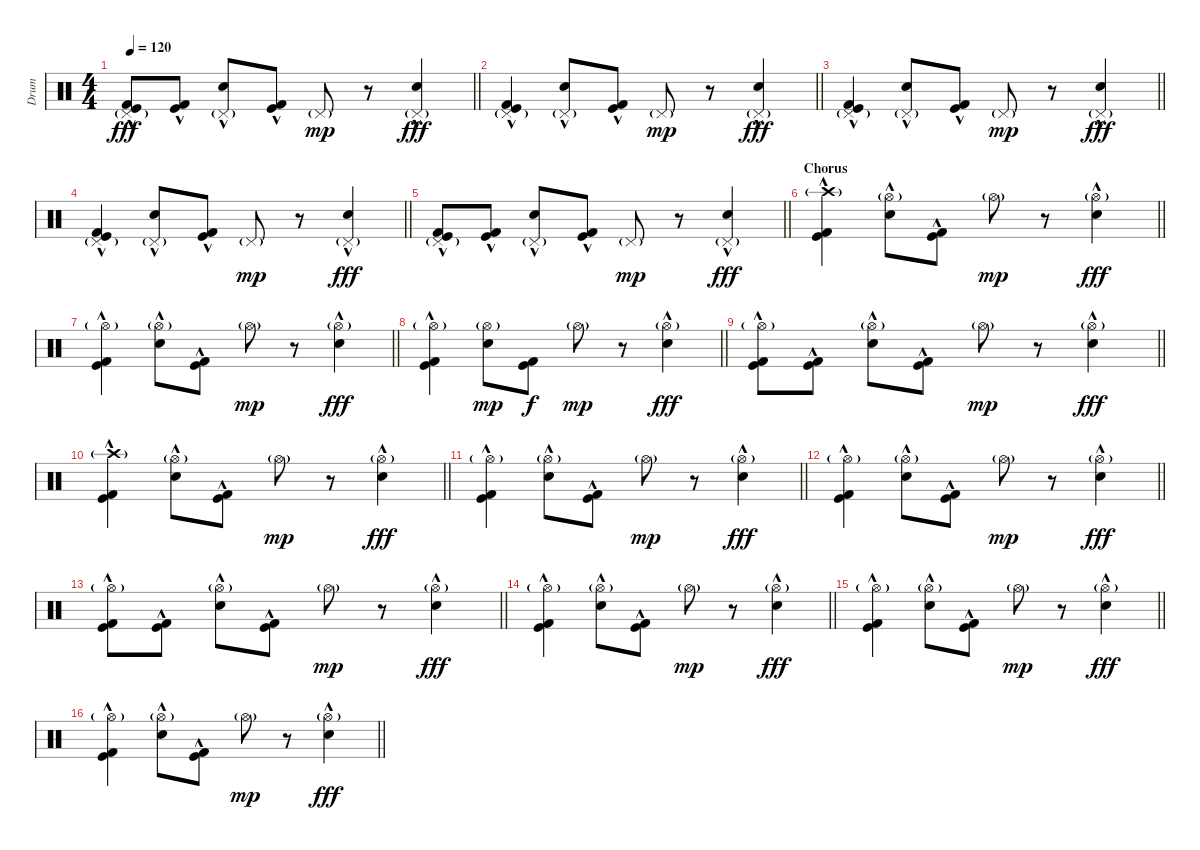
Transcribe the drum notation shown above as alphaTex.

\track ("Drum" "Drum") {instrument percussion}
\staff {score}
\articulation defaults
\ts (4 4)
\tempo 120
\clef neutral
\barLineRight lightlight
\ks c
("Pedal Hi-Hat (hit)"{g} "Kick (hit) 2"{hac} "Kick (hit)"{hac}).8{dy fff} ("Kick (hit) 2"{hac} "Kick (hit)"{hac}).8 ("Pedal Hi-Hat (hit)"{g} "Snare (hit) 2"{hac}).8 ("Kick (hit) 2"{hac} "Kick (hit)"{hac}).8 "Pedal Hi-Hat (hit)"{g}.8{dy mp} r.8 ("Pedal Hi-Hat (hit)"{g} "Snare (hit) 2"{hac}).4{dy fff} |
\barLineRight lightlight
("Pedal Hi-Hat (hit)"{g} "Kick (hit) 2"{hac} "Kick (hit)"{hac}).4 ("Pedal Hi-Hat (hit)"{g} "Snare (hit) 2"{hac}).8 ("Kick (hit) 2"{hac} "Kick (hit)"{hac}).8 "Pedal Hi-Hat (hit)"{g}.8{dy mp} r.8 ("Pedal Hi-Hat (hit)"{g} "Snare (hit) 2"{hac}).4{dy fff} |
\barLineRight lightlight
("Pedal Hi-Hat (hit)"{g} "Kick (hit) 2"{hac} "Kick (hit)"{hac}).4 ("Pedal Hi-Hat (hit)"{g} "Snare (hit) 2"{hac}).8 ("Kick (hit) 2"{hac} "Kick (hit)"{hac}).8 "Pedal Hi-Hat (hit)"{g}.8{dy mp} r.8 ("Pedal Hi-Hat (hit)"{g} "Snare (hit) 2"{hac}).4{dy fff} |
\barLineRight lightlight
("Pedal Hi-Hat (hit)"{g} "Kick (hit) 2"{hac} "Kick (hit)"{hac}).4 ("Pedal Hi-Hat (hit)"{g} "Snare (hit) 2"{hac}).8 ("Kick (hit) 2"{hac} "Kick (hit)"{hac}).8 "Pedal Hi-Hat (hit)"{g}.8{dy mp} r.8 ("Pedal Hi-Hat (hit)"{g} "Snare (hit) 2"{hac}).4{dy fff} |
\barLineRight lightlight
("Pedal Hi-Hat (hit)"{g} "Kick (hit) 2"{hac} "Kick (hit)"{hac}).8 ("Kick (hit) 2"{hac} "Kick (hit)"{hac}).8 ("Pedal Hi-Hat (hit)"{g} "Snare (hit) 2"{hac}).8 ("Kick (hit) 2"{hac} "Kick (hit)"{hac}).8 "Pedal Hi-Hat (hit)"{g}.8{dy mp} r.8 ("Pedal Hi-Hat (hit)"{g} "Snare (hit) 2"{hac}).4{dy fff} |
\section ("" "Chorus")
\barLineRight lightlight
("Crash high (hit)"{g} "Kick (hit) 2"{hac} "Kick (hit)"{hac}).4 ("Hi-Hat (open)"{g} "Snare (hit) 2"{hac}).8 ("Kick (hit) 2"{hac} "Kick (hit)"{hac}).8 "Hi-Hat (open)"{g}.8{dy mp} r.8 ("Hi-Hat (open)"{g} "Snare (hit) 2"{hac}).4{dy fff} |
\barLineRight lightlight
("Hi-Hat (open)"{g} "Kick (hit) 2"{hac} "Kick (hit)"{hac}).4 ("Hi-Hat (open)"{g} "Snare (hit) 2"{hac}).8 ("Kick (hit) 2"{hac} "Kick (hit)"{hac}).8 "Hi-Hat (open)"{g}.8{dy mp} r.8 ("Hi-Hat (open)"{g} "Snare (hit) 2"{hac}).4{dy fff} |
\barLineRight lightlight
("Hi-Hat (open)"{g} "Kick (hit) 2"{hac} "Kick (hit)"{hac}).4 ("Hi-Hat (open)"{g} "Snare (hit) 2").8{dy mp} ("Kick (hit) 2" "Kick (hit)").8{dy f} "Hi-Hat (open)"{g}.8{dy mp} r.8 ("Hi-Hat (open)"{g} "Snare (hit) 2"{hac}).4{dy fff} |
\barLineRight lightlight
("Hi-Hat (open)"{g} "Kick (hit) 2"{hac} "Kick (hit)"{hac}).8 ("Kick (hit) 2"{hac} "Kick (hit)"{hac}).8 ("Hi-Hat (open)"{g} "Snare (hit) 2"{hac}).8 ("Kick (hit) 2"{hac} "Kick (hit)"{hac}).8 "Hi-Hat (open)"{g}.8{dy mp} r.8 ("Hi-Hat (open)"{g} "Snare (hit) 2"{hac}).4{dy fff} |
\barLineRight lightlight
("Crash high (hit)"{g} "Kick (hit) 2"{hac} "Kick (hit)"{hac}).4 ("Hi-Hat (open)"{g} "Snare (hit) 2"{hac}).8 ("Kick (hit) 2"{hac} "Kick (hit)"{hac}).8 "Hi-Hat (open)"{g}.8{dy mp} r.8 ("Hi-Hat (open)"{g} "Snare (hit) 2"{hac}).4{dy fff} |
\barLineRight lightlight
("Hi-Hat (open)"{g} "Kick (hit) 2"{hac} "Kick (hit)"{hac}).4 ("Hi-Hat (open)"{g} "Snare (hit) 2"{hac}).8 ("Kick (hit) 2"{hac} "Kick (hit)"{hac}).8 "Hi-Hat (open)"{g}.8{dy mp} r.8 ("Hi-Hat (open)"{g} "Snare (hit) 2"{hac}).4{dy fff} |
\barLineRight lightlight
("Hi-Hat (open)"{g} "Kick (hit) 2"{hac} "Kick (hit)"{hac}).4 ("Hi-Hat (open)"{g} "Snare (hit) 2"{hac}).8 ("Kick (hit) 2"{hac} "Kick (hit)"{hac}).8 "Hi-Hat (open)"{g}.8{dy mp} r.8 ("Hi-Hat (open)"{g} "Snare (hit) 2"{hac}).4{dy fff} |
\barLineRight lightlight
("Hi-Hat (open)"{g} "Kick (hit) 2"{hac} "Kick (hit)"{hac}).8 ("Kick (hit) 2"{hac} "Kick (hit)"{hac}).8 ("Hi-Hat (open)"{g} "Snare (hit) 2"{hac}).8 ("Kick (hit) 2"{hac} "Kick (hit)"{hac}).8 "Hi-Hat (open)"{g}.8{dy mp} r.8 ("Hi-Hat (open)"{g} "Snare (hit) 2"{hac}).4{dy fff} |
\barLineRight lightlight
("Hi-Hat (open)"{g} "Kick (hit) 2"{hac} "Kick (hit)"{hac}).4 ("Hi-Hat (open)"{g} "Snare (hit) 2"{hac}).8 ("Kick (hit) 2"{hac} "Kick (hit)"{hac}).8 "Hi-Hat (open)"{g}.8{dy mp} r.8 ("Hi-Hat (open)"{g} "Snare (hit) 2"{hac}).4{dy fff} |
\barLineRight lightlight
("Hi-Hat (open)"{g} "Kick (hit) 2"{hac} "Kick (hit)"{hac}).4 ("Hi-Hat (open)"{g} "Snare (hit) 2"{hac}).8 ("Kick (hit) 2"{hac} "Kick (hit)"{hac}).8 "Hi-Hat (open)"{g}.8{dy mp} r.8 ("Hi-Hat (open)"{g} "Snare (hit) 2"{hac}).4{dy fff} |
\barLineRight lightlight
("Hi-Hat (open)"{g} "Kick (hit) 2"{hac} "Kick (hit)"{hac}).4 ("Hi-Hat (open)"{g} "Snare (hit) 2"{hac}).8 ("Kick (hit) 2"{hac} "Kick (hit)"{hac}).8 "Hi-Hat (open)"{g}.8{dy mp} r.8 ("Hi-Hat (open)"{g} "Snare (hit) 2"{hac}).4{dy fff}
